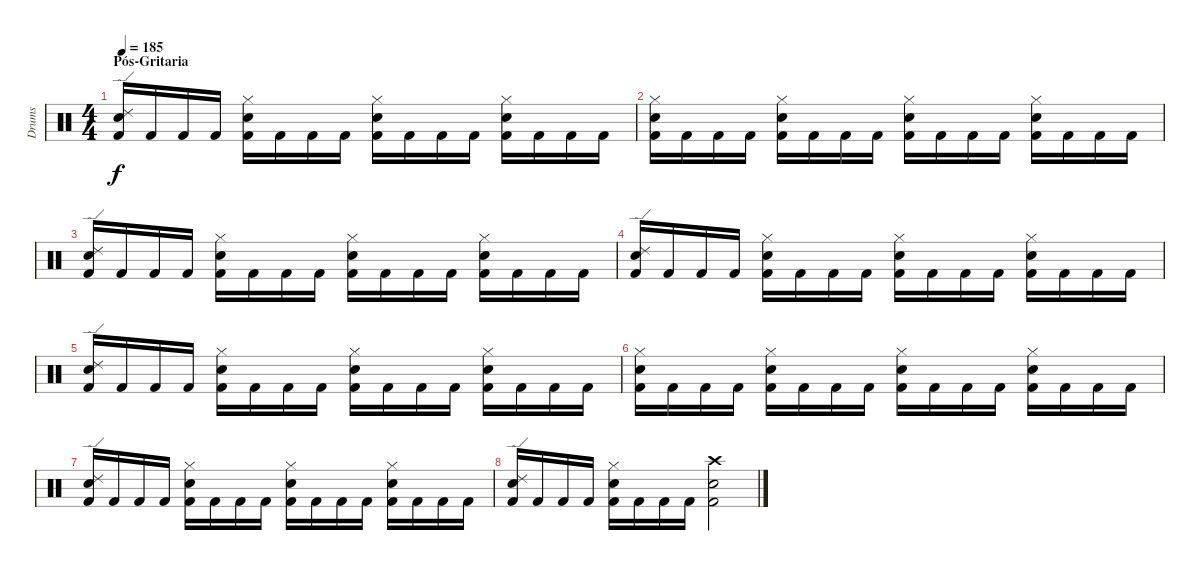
\track ("Drums" "Drums") {instrument percussion}
\staff {score}
\articulation defaults
\ts (4 4)
\section ("" "Pós-Gritaria")
\tempo 185
\clef neutral
\ks c
("Electric Snare (hit)" "Ride (edge) 2" "Kick (hit) 2").16{dy f} "Kick (hit) 2".16 "Kick (hit) 2".16 "Kick (hit) 2".16 ("Hi-Hat (closed)" "Electric Snare (hit)" "Kick (hit) 2").16 "Kick (hit) 2".16 "Kick (hit) 2".16 "Kick (hit) 2".16 ("Electric Snare (hit)" "Hi-Hat (closed)" "Kick (hit) 2").16 "Kick (hit) 2".16 "Kick (hit) 2".16 "Kick (hit) 2".16 ("Hi-Hat (closed)" "Electric Snare (hit)" "Kick (hit) 2").16 "Kick (hit) 2".16 "Kick (hit) 2".16 "Kick (hit) 2".16 |
("Electric Snare (hit)" "Hi-Hat (closed)" "Kick (hit) 2").16 "Kick (hit) 2".16 "Kick (hit) 2".16 "Kick (hit) 2".16 ("Hi-Hat (closed)" "Electric Snare (hit)" "Kick (hit) 2").16 "Kick (hit) 2".16 "Kick (hit) 2".16 "Kick (hit) 2".16 ("Electric Snare (hit)" "Hi-Hat (closed)" "Kick (hit) 2").16 "Kick (hit) 2".16 "Kick (hit) 2".16 "Kick (hit) 2".16 ("Hi-Hat (closed)" "Electric Snare (hit)" "Kick (hit) 2").16 "Kick (hit) 2".16 "Kick (hit) 2".16 "Kick (hit) 2".16 |
("Electric Snare (hit)" "Ride (edge) 2" "Kick (hit) 2").16 "Kick (hit) 2".16 "Kick (hit) 2".16 "Kick (hit) 2".16 ("Hi-Hat (closed)" "Electric Snare (hit)" "Kick (hit) 2").16 "Kick (hit) 2".16 "Kick (hit) 2".16 "Kick (hit) 2".16 ("Electric Snare (hit)" "Hi-Hat (closed)" "Kick (hit) 2").16 "Kick (hit) 2".16 "Kick (hit) 2".16 "Kick (hit) 2".16 ("Hi-Hat (closed)" "Electric Snare (hit)" "Kick (hit) 2").16 "Kick (hit) 2".16 "Kick (hit) 2".16 "Kick (hit) 2".16 |
("Electric Snare (hit)" "Ride (edge) 2" "Kick (hit) 2").16 "Kick (hit) 2".16 "Kick (hit) 2".16 "Kick (hit) 2".16 ("Hi-Hat (closed)" "Electric Snare (hit)" "Kick (hit) 2").16 "Kick (hit) 2".16 "Kick (hit) 2".16 "Kick (hit) 2".16 ("Electric Snare (hit)" "Hi-Hat (closed)" "Kick (hit) 2").16 "Kick (hit) 2".16 "Kick (hit) 2".16 "Kick (hit) 2".16 ("Hi-Hat (closed)" "Electric Snare (hit)" "Kick (hit) 2").16 "Kick (hit) 2".16 "Kick (hit) 2".16 "Kick (hit) 2".16 |
("Electric Snare (hit)" "Ride (edge) 2" "Kick (hit) 2").16 "Kick (hit) 2".16 "Kick (hit) 2".16 "Kick (hit) 2".16 ("Hi-Hat (closed)" "Electric Snare (hit)" "Kick (hit) 2").16 "Kick (hit) 2".16 "Kick (hit) 2".16 "Kick (hit) 2".16 ("Electric Snare (hit)" "Hi-Hat (closed)" "Kick (hit) 2").16 "Kick (hit) 2".16 "Kick (hit) 2".16 "Kick (hit) 2".16 ("Hi-Hat (closed)" "Electric Snare (hit)" "Kick (hit) 2").16 "Kick (hit) 2".16 "Kick (hit) 2".16 "Kick (hit) 2".16 |
("Electric Snare (hit)" "Hi-Hat (closed)" "Kick (hit) 2").16 "Kick (hit) 2".16 "Kick (hit) 2".16 "Kick (hit) 2".16 ("Hi-Hat (closed)" "Electric Snare (hit)" "Kick (hit) 2").16 "Kick (hit) 2".16 "Kick (hit) 2".16 "Kick (hit) 2".16 ("Electric Snare (hit)" "Hi-Hat (closed)" "Kick (hit) 2").16 "Kick (hit) 2".16 "Kick (hit) 2".16 "Kick (hit) 2".16 ("Hi-Hat (closed)" "Electric Snare (hit)" "Kick (hit) 2").16 "Kick (hit) 2".16 "Kick (hit) 2".16 "Kick (hit) 2".16 |
("Electric Snare (hit)" "Ride (edge) 2" "Kick (hit) 2").16 "Kick (hit) 2".16 "Kick (hit) 2".16 "Kick (hit) 2".16 ("Hi-Hat (closed)" "Electric Snare (hit)" "Kick (hit) 2").16 "Kick (hit) 2".16 "Kick (hit) 2".16 "Kick (hit) 2".16 ("Electric Snare (hit)" "Hi-Hat (closed)" "Kick (hit) 2").16 "Kick (hit) 2".16 "Kick (hit) 2".16 "Kick (hit) 2".16 ("Hi-Hat (closed)" "Electric Snare (hit)" "Kick (hit) 2").16 "Kick (hit) 2".16 "Kick (hit) 2".16 "Kick (hit) 2".16 |
("Electric Snare (hit)" "Ride (edge) 2" "Kick (hit) 2").16 "Kick (hit) 2".16 "Kick (hit) 2".16 "Kick (hit) 2".16 ("Hi-Hat (closed)" "Electric Snare (hit)" "Kick (hit) 2").16 "Kick (hit) 2".16 "Kick (hit) 2".16 "Kick (hit) 2".16 ("Electric Snare (hit)" "Crash high (hit)" "Kick (hit) 2").2
